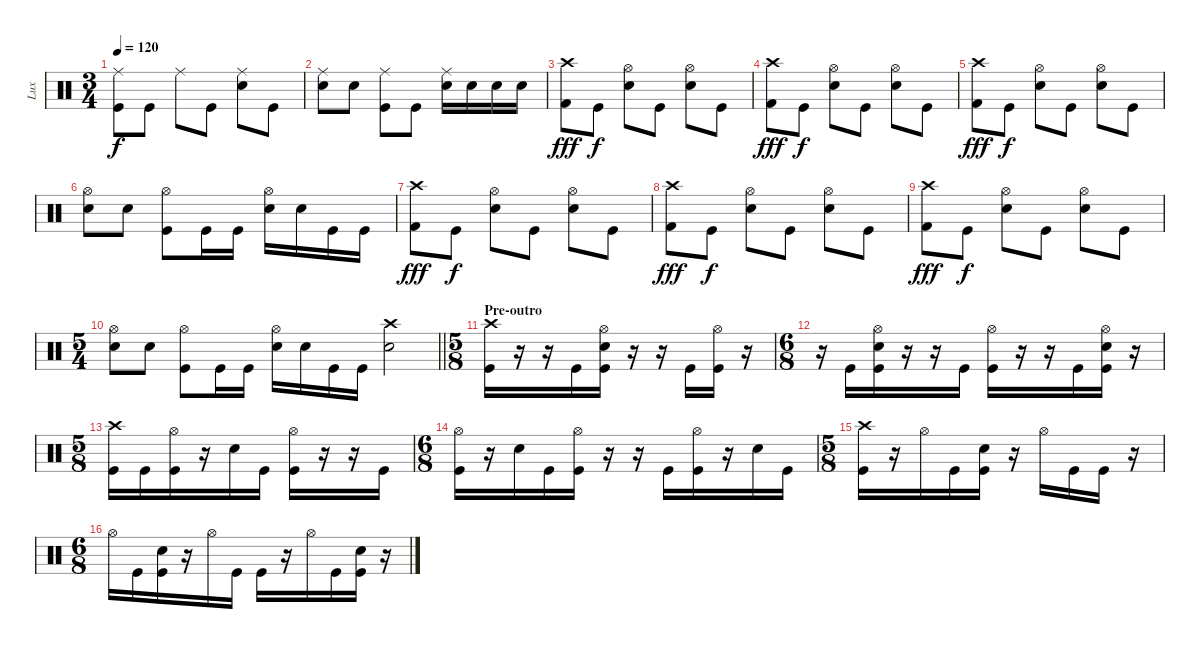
\track ("Lux" "Lux") {instrument percussion}
\staff {score}
\articulation defaults
\ts (3 4)
\tempo 120
\clef neutral
\ks c
("Ride (middle)" "Kick (hit)").8{dy f} "Kick (hit)".8 "Ride (middle)".8 "Kick (hit)".8 ("Ride (middle)" "Snare (hit) 2").8 "Kick (hit)".8 |
("Ride (middle)" "Snare (hit) 2").8 "Snare (hit) 2".8 ("Ride (middle)" "Kick (hit)").8 "Kick (hit)".8 ("Ride (middle)" "Snare (hit) 2").16 "Snare (hit) 2".16 "Snare (hit) 2".16 "Snare (hit) 2".16 |
("Crash high (hit)" "Kick (hit) 2").8{dy fff} "Kick (hit)".8{dy f} ("Hi-Hat (open)" "Snare (hit) 2").8 "Kick (hit)".8 ("Hi-Hat (open)" "Snare (hit) 2").8 "Kick (hit)".8 |
("Crash high (hit)" "Kick (hit) 2").8{dy fff} "Kick (hit)".8{dy f} ("Hi-Hat (open)" "Snare (hit) 2").8 "Kick (hit)".8 ("Hi-Hat (open)" "Snare (hit) 2").8 "Kick (hit)".8 |
("Crash high (hit)" "Kick (hit) 2").8{dy fff} "Kick (hit)".8{dy f} ("Hi-Hat (open)" "Snare (hit) 2").8 "Kick (hit)".8 ("Hi-Hat (open)" "Snare (hit) 2").8 "Kick (hit)".8 |
("Hi-Hat (open)" "Snare (hit) 2").8 "Snare (hit) 2".8 ("Hi-Hat (open)" "Kick (hit)").8 "Kick (hit)".16 "Kick (hit)".16 ("Hi-Hat (open)" "Snare (hit) 2").16 "Snare (hit) 2".16 "Kick (hit)".16 "Kick (hit)".16 |
("Crash high (hit)" "Kick (hit) 2").8{dy fff} "Kick (hit)".8{dy f} ("Hi-Hat (open)" "Snare (hit) 2").8 "Kick (hit)".8 ("Hi-Hat (open)" "Snare (hit) 2").8 "Kick (hit)".8 |
("Crash high (hit)" "Kick (hit) 2").8{dy fff} "Kick (hit)".8{dy f} ("Hi-Hat (open)" "Snare (hit) 2").8 "Kick (hit)".8 ("Hi-Hat (open)" "Snare (hit) 2").8 "Kick (hit)".8 |
("Crash high (hit)" "Kick (hit) 2").8{dy fff} "Kick (hit)".8{dy f} ("Hi-Hat (open)" "Snare (hit) 2").8 "Kick (hit)".8 ("Hi-Hat (open)" "Snare (hit) 2").8 "Kick (hit)".8 |
\ts (5 4)
\barLineRight lightlight
("Hi-Hat (open)" "Snare (hit) 2").8 "Snare (hit) 2".8 ("Hi-Hat (open)" "Kick (hit)").8 "Kick (hit)".16 "Kick (hit)".16 ("Hi-Hat (open)" "Snare (hit) 2").16 "Snare (hit) 2".16 "Kick (hit)".16 "Kick (hit)".16 ("Crash high (hit)" "Snare (hit) 2").2 |
\ts (5 8)
\section ("" "Pre-outro")
("Crash high (hit)" "Kick (hit)").16 r.16 r.16 "Kick (hit)".16 ("Hi-Hat (open)" "Snare (hit) 2" "Kick (hit)").16 r.16 r.16 "Kick (hit)".16 ("Hi-Hat (open)" "Kick (hit)").16 r.16 |
\ts (6 8)
r.16 "Kick (hit)".16 ("Hi-Hat (open)" "Snare (hit) 2" "Kick (hit)").16 r.16 r.16 "Kick (hit)".16 ("Hi-Hat (open)" "Kick (hit)").16 r.16 r.16 "Kick (hit)".16 ("Hi-Hat (open)" "Snare (hit) 2" "Kick (hit)").16 r.16 |
\ts (5 8)
("Crash high (hit)" "Kick (hit)").16 "Kick (hit)".16 ("Hi-Hat (open)" "Kick (hit)").16 r.16 "Snare (hit) 2".16 "Kick (hit)".16 ("Hi-Hat (open)" "Kick (hit)").16 r.16 r.16 "Kick (hit)".16 |
\ts (6 8)
("Hi-Hat (open)" "Kick (hit)").16 r.16 "Snare (hit) 2".16 "Kick (hit)".16 ("Hi-Hat (open)" "Kick (hit)").16 r.16 r.16 "Kick (hit)".16 ("Hi-Hat (open)" "Kick (hit)").16 r.16 "Snare (hit) 2".16 "Kick (hit)".16 |
\ts (5 8)
("Crash high (hit)" "Kick (hit)").16 r.16 "Hi-Hat (open)".16 "Kick (hit)".16 ("Snare (hit) 2" "Kick (hit)").16 r.16 "Hi-Hat (open)".16 "Kick (hit)".16 "Kick (hit)".16 r.16 |
\ts (6 8)
"Hi-Hat (open)".16 "Kick (hit)".16 ("Snare (hit) 2" "Kick (hit)").16 r.16 "Hi-Hat (open)".16 "Kick (hit)".16 "Kick (hit)".16 r.16 "Hi-Hat (open)".16 "Kick (hit)".16 ("Snare (hit) 2" "Kick (hit)").16 r.16
